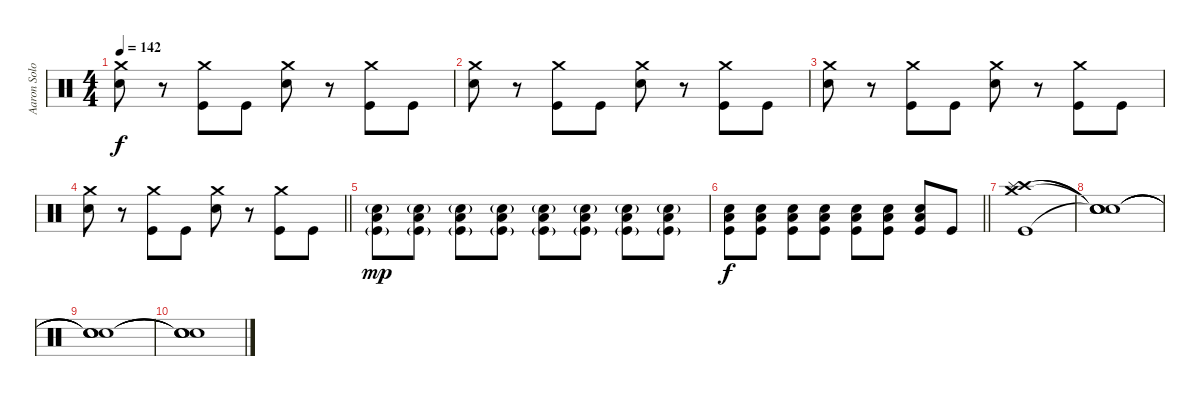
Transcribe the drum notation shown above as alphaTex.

\track ("Aaron Solowoniuk" "Aaron Solo") {instrument percussion}
\staff {score}
\articulation defaults
\ts (4 4)
\tempo 142
\clef neutral
\ks c
("Crash medium (hit)" "Electric Snare (hit)").8{dy f} r.8 ("Crash medium (hit)" "Kick (hit)").8 "Kick (hit)".8 ("Crash medium (hit)" "Electric Snare (hit)").8 r.8 ("Crash medium (hit)" "Kick (hit)").8 "Kick (hit)".8 |
("Crash medium (hit)" "Electric Snare (hit)").8 r.8 ("Crash medium (hit)" "Kick (hit)").8 "Kick (hit)".8 ("Crash medium (hit)" "Electric Snare (hit)").8 r.8 ("Crash medium (hit)" "Kick (hit)").8 "Kick (hit)".8 |
("Crash medium (hit)" "Electric Snare (hit)").8 r.8 ("Crash medium (hit)" "Kick (hit)").8 "Kick (hit)".8 ("Crash medium (hit)" "Electric Snare (hit)").8 r.8 ("Crash medium (hit)" "Kick (hit)").8 "Kick (hit)".8 |
\barLineRight lightlight
("Crash medium (hit)" "Electric Snare (hit)").8 r.8 ("Crash medium (hit)" "Kick (hit)").8 "Kick (hit)".8 ("Crash medium (hit)" "Electric Snare (hit)").8 r.8 ("Crash medium (hit)" "Kick (hit)").8 "Kick (hit)".8 |
("Low Floor Tom (hit)" "Kick (hit)"{g} "Electric Snare (hit)"{g}).8{dy mp} ("Low Floor Tom (hit)" "Kick (hit)"{g} "Electric Snare (hit)"{g}).8 ("Low Floor Tom (hit)" "Kick (hit)"{g} "Electric Snare (hit)"{g}).8 ("Low Floor Tom (hit)" "Kick (hit)"{g} "Electric Snare (hit)"{g}).8 ("Low Floor Tom (hit)" "Kick (hit)"{g} "Electric Snare (hit)"{g}).8 ("Low Floor Tom (hit)" "Kick (hit)"{g} "Electric Snare (hit)"{g}).8 ("Low Floor Tom (hit)" "Kick (hit)"{g} "Electric Snare (hit)"{g}).8 ("Low Floor Tom (hit)" "Kick (hit)"{g} "Electric Snare (hit)"{g}).8 |
\barLineRight lightlight
("Low Floor Tom (hit)" "Kick (hit)" "Electric Snare (hit)").8{dy f} ("Low Floor Tom (hit)" "Kick (hit)" "Electric Snare (hit)").8 ("Low Floor Tom (hit)" "Kick (hit)" "Electric Snare (hit)").8 ("Low Floor Tom (hit)" "Kick (hit)" "Electric Snare (hit)").8 ("Low Floor Tom (hit)" "Kick (hit)" "Electric Snare (hit)").8 ("Low Floor Tom (hit)" "Kick (hit)" "Electric Snare (hit)").8 ("Low Floor Tom (hit)" "Kick (hit)" "Electric Snare (hit)").8 "Kick (hit)".8 |
("Crash medium (hit)" "Crash high (hit)" "Splash (hit)" "Kick (hit)").1 |
("Snare (hit)"{t} "Snare (hit)"{t} "Snare (hit)"{t} "Snare (hit)"{t}).1 |
("Snare (hit)"{t} "Snare (hit)"{t} "Snare (hit)"{t} "Snare (hit)"{t}).1 |
("Snare (hit)"{t} "Snare (hit)"{t} "Snare (hit)"{t} "Snare (hit)"{t}).1
